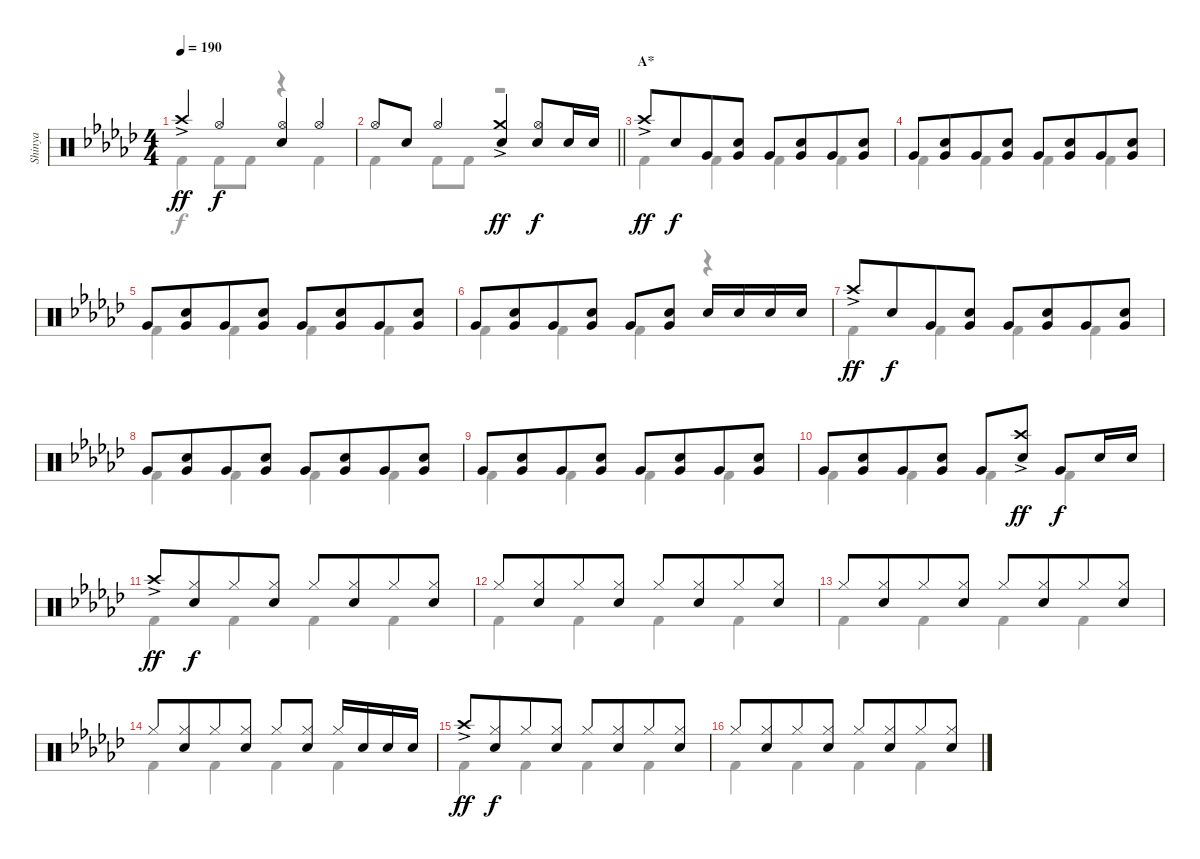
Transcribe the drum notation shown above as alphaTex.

\track ("Shinya" "Shinya") {instrument percussion}
\staff {score}
\articulation defaults
\voice
\ts (4 4)
\tempo 190
\clef neutral
\ks ebminor "Crash high (hit)"{ac}.4{dy ff} "Hi-Hat (open)".4{dy f}
("Hi-Hat (open)" "Snare (hit) 2").4 "Hi-Hat (open)".4 |
\barLineRight lightlight "Hi-Hat (open)".8 "Snare (hit) 2".8 "Hi-Hat (open)".4
("Crash medium (hit)"{ac} "Snare (hit) 2").4{dy ff} ("Hi-Hat (open)" "Snare (hit) 2").8{dy f} "Snare (hit) 2".16 "Snare (hit) 2".16 |
\section ("" "A*")
"Crash high (hit)"{ac}.8{dy ff} "Snare (hit) 2".8{dy f beam merge} "Very Low Tom (hit)".8 ("Snare (hit) 2" "Very Low Tom (hit)").8 "Very Low Tom (hit)".8 ("Snare (hit) 2" "Very Low Tom (hit)").8{beam merge} "Very Low Tom (hit)".8 ("Snare (hit) 2" "Very Low Tom (hit)").8 |
"Very Low Tom (hit)".8 ("Snare (hit) 2" "Very Low Tom (hit)").8{beam merge} "Very Low Tom (hit)".8 ("Snare (hit) 2" "Very Low Tom (hit)").8 "Very Low Tom (hit)".8 ("Snare (hit) 2" "Very Low Tom (hit)").8{beam merge} "Very Low Tom (hit)".8 ("Snare (hit) 2" "Very Low Tom (hit)").8 |
"Very Low Tom (hit)".8 ("Snare (hit) 2" "Very Low Tom (hit)").8{beam merge} "Very Low Tom (hit)".8 ("Snare (hit) 2" "Very Low Tom (hit)").8 "Very Low Tom (hit)".8 ("Snare (hit) 2" "Very Low Tom (hit)").8{beam merge} "Very Low Tom (hit)".8 ("Snare (hit) 2" "Very Low Tom (hit)").8 |
"Very Low Tom (hit)".8 ("Snare (hit) 2" "Very Low Tom (hit)").8{beam merge} "Very Low Tom (hit)".8 ("Snare (hit) 2" "Very Low Tom (hit)").8 "Very Low Tom (hit)".8 ("Snare (hit) 2" "Very Low Tom (hit)").8 "Snare (hit) 2".16 "Snare (hit) 2".16 "Snare (hit) 2".16 "Snare (hit) 2".16 |
"Crash high (hit)"{ac}.8{dy ff} "Snare (hit) 2".8{dy f beam merge} "Very Low Tom (hit)".8 ("Snare (hit) 2" "Very Low Tom (hit)").8 "Very Low Tom (hit)".8 ("Snare (hit) 2" "Very Low Tom (hit)").8{beam merge} "Very Low Tom (hit)".8 ("Snare (hit) 2" "Very Low Tom (hit)").8 |
"Very Low Tom (hit)".8 ("Snare (hit) 2" "Very Low Tom (hit)").8{beam merge} "Very Low Tom (hit)".8 ("Snare (hit) 2" "Very Low Tom (hit)").8 "Very Low Tom (hit)".8 ("Snare (hit) 2" "Very Low Tom (hit)").8{beam merge} "Very Low Tom (hit)".8 ("Snare (hit) 2" "Very Low Tom (hit)").8 |
"Very Low Tom (hit)".8 ("Snare (hit) 2" "Very Low Tom (hit)").8{beam merge} "Very Low Tom (hit)".8 ("Snare (hit) 2" "Very Low Tom (hit)").8 "Very Low Tom (hit)".8 ("Snare (hit) 2" "Very Low Tom (hit)").8{beam merge} "Very Low Tom (hit)".8 ("Snare (hit) 2" "Very Low Tom (hit)").8 |
"Very Low Tom (hit)".8 ("Snare (hit) 2" "Very Low Tom (hit)").8{beam merge} "Very Low Tom (hit)".8 ("Snare (hit) 2" "Very Low Tom (hit)").8 "Very Low Tom (hit)".8 ("Crash high (hit)"{ac} "Snare (hit) 2").8{dy ff} "Very Low Tom (hit)".8{dy f} "Snare (hit) 2".16 "Snare (hit) 2".16 |
"Crash high (hit)"{ac}.8{dy ff} ("Hi-Hat (closed)" "Snare (hit) 2").8{dy f beam merge} "Hi-Hat (closed)".8 ("Hi-Hat (closed)" "Snare (hit) 2").8 "Hi-Hat (closed)".8 ("Hi-Hat (closed)" "Snare (hit) 2").8{beam merge} "Hi-Hat (closed)".8 ("Hi-Hat (closed)" "Snare (hit) 2").8 |
"Hi-Hat (closed)".8 ("Hi-Hat (closed)" "Snare (hit) 2").8{beam merge} "Hi-Hat (closed)".8 ("Hi-Hat (closed)" "Snare (hit) 2").8 "Hi-Hat (closed)".8 ("Hi-Hat (closed)" "Snare (hit) 2").8{beam merge} "Hi-Hat (closed)".8 ("Hi-Hat (closed)" "Snare (hit) 2").8 |
"Hi-Hat (closed)".8 ("Hi-Hat (closed)" "Snare (hit) 2").8{beam merge} "Hi-Hat (closed)".8 ("Hi-Hat (closed)" "Snare (hit) 2").8 "Hi-Hat (closed)".8 ("Hi-Hat (closed)" "Snare (hit) 2").8{beam merge} "Hi-Hat (closed)".8 ("Hi-Hat (closed)" "Snare (hit) 2").8 |
"Hi-Hat (closed)".8 ("Hi-Hat (closed)" "Snare (hit) 2").8{beam merge} "Hi-Hat (closed)".8 ("Hi-Hat (closed)" "Snare (hit) 2").8 "Hi-Hat (closed)".8 ("Hi-Hat (closed)" "Snare (hit) 2").8 "Hi-Hat (closed)".16 "Snare (hit) 2".16 "Snare (hit) 2".16 "Snare (hit) 2".16 |
"Crash high (hit)"{ac}.8{dy ff} ("Hi-Hat (closed)" "Snare (hit) 2").8{dy f beam merge} "Hi-Hat (closed)".8 ("Hi-Hat (closed)" "Snare (hit) 2").8 "Hi-Hat (closed)".8 ("Hi-Hat (closed)" "Snare (hit) 2").8{beam merge} "Hi-Hat (closed)".8 ("Hi-Hat (closed)" "Snare (hit) 2").8 |
"Hi-Hat (closed)".8 ("Hi-Hat (closed)" "Snare (hit) 2").8{beam merge} "Hi-Hat (closed)".8 ("Hi-Hat (closed)" "Snare (hit) 2").8 "Hi-Hat (closed)".8 ("Hi-Hat (closed)" "Snare (hit) 2").8{beam merge} "Hi-Hat (closed)".8 ("Hi-Hat (closed)" "Snare (hit) 2").8
\voice
\clef neutral
\ottava regular
\simile none
\ks ebminor "Kick (hit) 2".4{dy f} "Kick (hit) 2".8 "Kick (hit) 2".8
r.4 "Kick (hit) 2".4 |
\barLineRight lightlight "Kick (hit) 2".4 "Kick (hit) 2".8 "Kick (hit) 2".8
r.2 |
"Kick (hit) 2".4 "Kick (hit) 2".4 "Kick (hit) 2".4 "Kick (hit) 2".4 |
"Kick (hit) 2".4 "Kick (hit) 2".4 "Kick (hit) 2".4 "Kick (hit) 2".4 |
"Kick (hit) 2".4 "Kick (hit) 2".4 "Kick (hit) 2".4 "Kick (hit) 2".4 |
"Kick (hit) 2".4 "Kick (hit) 2".4 "Kick (hit) 2".4 r.4 |
"Kick (hit) 2".4 "Kick (hit) 2".4 "Kick (hit) 2".4 "Kick (hit) 2".4 |
"Kick (hit) 2".4 "Kick (hit) 2".4 "Kick (hit) 2".4 "Kick (hit) 2".4 |
"Kick (hit) 2".4 "Kick (hit) 2".4 "Kick (hit) 2".4 "Kick (hit) 2".4 |
"Kick (hit) 2".4 "Kick (hit) 2".4 "Kick (hit) 2".4 "Kick (hit) 2".4 |
"Kick (hit) 2".4 "Kick (hit) 2".4 "Kick (hit) 2".4 "Kick (hit) 2".4 |
"Kick (hit) 2".4 "Kick (hit) 2".4 "Kick (hit) 2".4 "Kick (hit) 2".4 |
"Kick (hit) 2".4 "Kick (hit) 2".4 "Kick (hit) 2".4 "Kick (hit) 2".4 |
"Kick (hit) 2".4 "Kick (hit) 2".4 "Kick (hit) 2".4 "Kick (hit) 2".4 |
"Kick (hit) 2".4 "Kick (hit) 2".4 "Kick (hit) 2".4 "Kick (hit) 2".4 |
"Kick (hit) 2".4 "Kick (hit) 2".4 "Kick (hit) 2".4 "Kick (hit) 2".4
